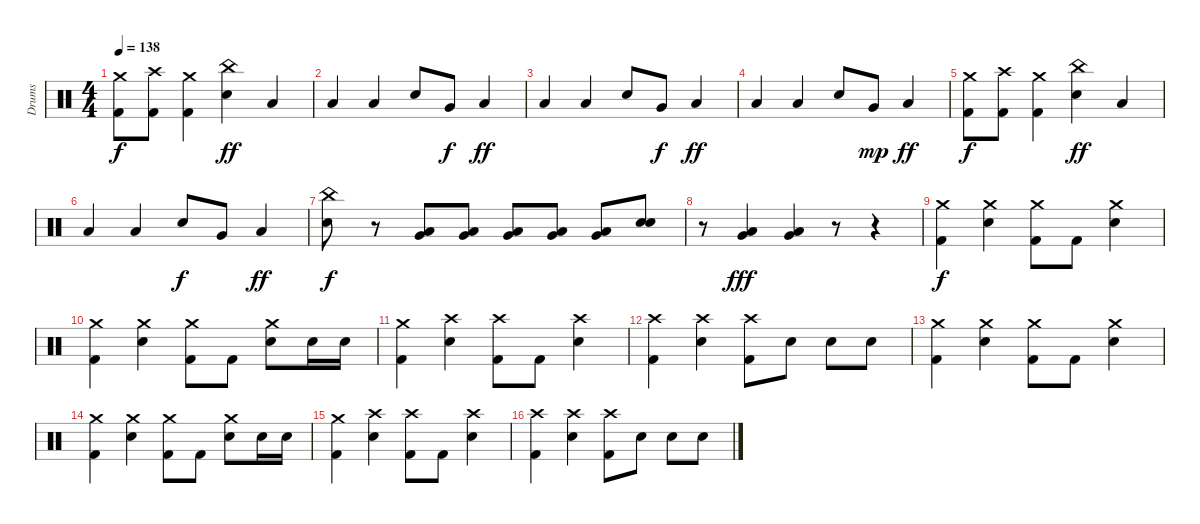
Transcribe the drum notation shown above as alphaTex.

\track ("Drums" "Drums") {instrument percussion}
\staff
\articulation defaults
\ts (4 4)
\tempo 138
\clef neutral
\ks c
("Crash medium (hit)" "Kick (hit) 2").8{dy f} ("Crash high (hit)" "Kick (hit) 2").8 ("Crash medium (hit)" "Kick (hit) 2").4 ("China (hit)" "Snare (hit) 2").4{dy ff} "Low Floor Tom (hit)".4 |
"Low Floor Tom (hit)".4 "Low Floor Tom (hit)".4 "Snare (hit) 2".8 "Very Low Tom (hit)".8{dy f} "Low Floor Tom (hit)".4{dy ff} |
"Low Floor Tom (hit)".4 "Low Floor Tom (hit)".4 "Snare (hit) 2".8 "Very Low Tom (hit)".8{dy f} "Low Floor Tom (hit)".4{dy ff} |
"Low Floor Tom (hit)".4 "Low Floor Tom (hit)".4 "Snare (hit) 2".8 "Very Low Tom (hit)".8{dy mp} "Low Floor Tom (hit)".4{dy ff} |
("Crash medium (hit)" "Kick (hit) 2").8{dy f} ("Crash high (hit)" "Kick (hit) 2").8 ("Crash medium (hit)" "Kick (hit) 2").4 ("China (hit)" "Snare (hit) 2").4{dy ff} "Low Floor Tom (hit)".4 |
"Low Floor Tom (hit)".4 "Low Floor Tom (hit)".4 "Snare (hit) 2".8{dy f} "Very Low Tom (hit)".8 "Low Floor Tom (hit)".4{dy ff} |
("China (hit)" "Snare (hit) 2").8{dy f} r.8{volume 9} ("Low Floor Tom (hit)" "Very Low Tom (hit)").8{volume 13} ("Very Low Tom (hit)" "Low Floor Tom (hit)").8 ("Very Low Tom (hit)" "Low Floor Tom (hit)").8 ("Very Low Tom (hit)" "Low Floor Tom (hit)").8 ("Very Low Tom (hit)" "Low Floor Tom (hit)").8 ("Snare (hit) 2" "Snare (hit) 2").8 |
r.8 ("Low Floor Tom (hit)" "Very Low Tom (hit)").4{dy fff} ("Very Low Tom (hit)" "Low Floor Tom (hit)").4 r.8 r.4 |
("Crash medium (hit)" "Kick (hit) 2").4{dy f} ("Crash medium (hit)" "Snare (hit) 2").4 ("Crash medium (hit)" "Kick (hit) 2").8 "Kick (hit) 2".8 ("Crash medium (hit)" "Snare (hit) 2").4 |
("Crash medium (hit)" "Kick (hit) 2").4 ("Crash medium (hit)" "Snare (hit) 2").4 ("Crash medium (hit)" "Kick (hit) 2").8 "Kick (hit) 2".8 ("Crash medium (hit)" "Snare (hit) 2").8 "Snare (hit) 2".16 "Snare (hit) 2".16 |
("Crash medium (hit)" "Kick (hit) 2").4 ("Crash high (hit)" "Snare (hit) 2").4 ("Crash high (hit)" "Kick (hit) 2").8 "Kick (hit) 2".8 ("Crash high (hit)" "Snare (hit) 2").4 |
("Crash high (hit)" "Kick (hit) 2").4 ("Crash high (hit)" "Snare (hit) 2").4 ("Crash high (hit)" "Kick (hit) 2").8 "Snare (hit) 2".8 "Snare (hit) 2".8 "Snare (hit) 2".8 |
("Crash medium (hit)" "Kick (hit) 2").4 ("Crash medium (hit)" "Snare (hit) 2").4 ("Crash medium (hit)" "Kick (hit) 2").8 "Kick (hit) 2".8 ("Crash medium (hit)" "Snare (hit) 2").4 |
("Crash medium (hit)" "Kick (hit) 2").4 ("Crash medium (hit)" "Snare (hit) 2").4 ("Crash medium (hit)" "Kick (hit) 2").8 "Kick (hit) 2".8 ("Crash medium (hit)" "Snare (hit) 2").8 "Snare (hit) 2".16 "Snare (hit) 2".16 |
("Crash medium (hit)" "Kick (hit) 2").4 ("Crash high (hit)" "Snare (hit) 2").4 ("Crash high (hit)" "Kick (hit) 2").8 "Kick (hit) 2".8 ("Crash high (hit)" "Snare (hit) 2").4 |
("Crash high (hit)" "Kick (hit) 2").4 ("Crash high (hit)" "Snare (hit) 2").4 ("Crash high (hit)" "Kick (hit) 2").8 "Snare (hit) 2".8 "Snare (hit) 2".8 "Snare (hit) 2".8
